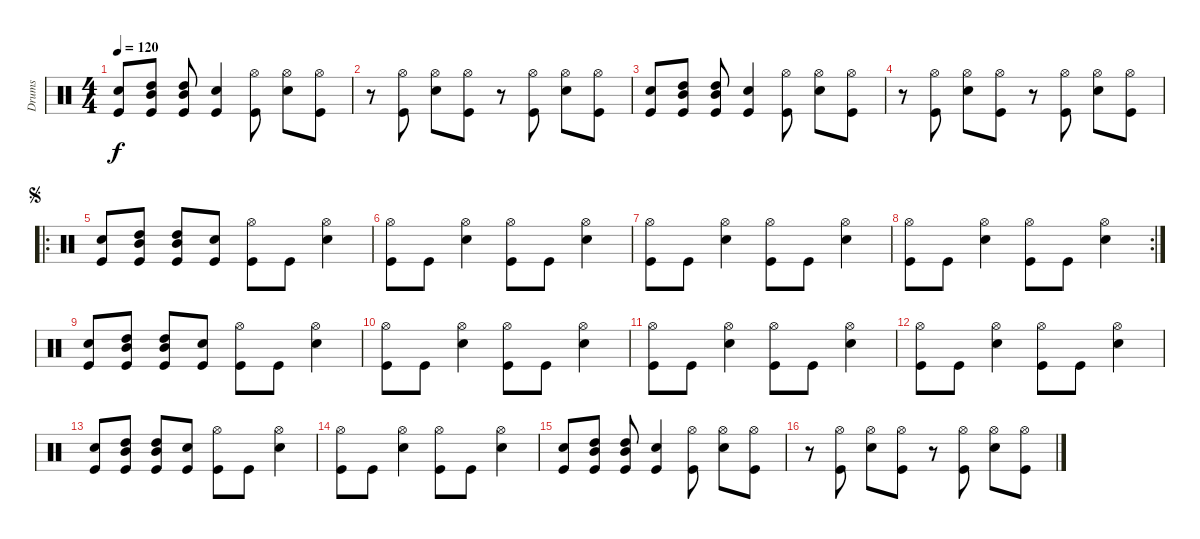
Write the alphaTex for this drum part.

\track ("Drums" "Drums") {instrument percussion}
\staff {score}
\articulation defaults
\ts (4 4)
\tempo 120
\clef neutral
\ks c
("Kick (hit)" "Snare (hit) 2").8{dy f} ("High Tom (hit)" "Mid Tom (hit)" "Kick (hit)").8 ("High Tom (hit)" "Mid Tom (hit)" "Kick (hit)").8 ("Snare (hit) 2" "Kick (hit)").4 ("Kick (hit)" "Hi-Hat (open)").8 ("Snare (hit) 2" "Hi-Hat (open)").8 ("Kick (hit)" "Hi-Hat (open)").8 |
r.8 ("Kick (hit)" "Hi-Hat (open)").8 ("Snare (hit) 2" "Hi-Hat (open)").8 ("Kick (hit)" "Hi-Hat (open)").8 r.8 ("Kick (hit)" "Hi-Hat (open)").8 ("Snare (hit) 2" "Hi-Hat (open)").8 ("Kick (hit)" "Hi-Hat (open)").8 |
("Kick (hit)" "Snare (hit) 2").8 ("High Tom (hit)" "Mid Tom (hit)" "Kick (hit)").8 ("High Tom (hit)" "Mid Tom (hit)" "Kick (hit)").8 ("Snare (hit) 2" "Kick (hit)").4 ("Kick (hit)" "Hi-Hat (open)").8 ("Snare (hit) 2" "Hi-Hat (open)").8 ("Kick (hit)" "Hi-Hat (open)").8 |
r.8 ("Kick (hit)" "Hi-Hat (open)").8 ("Snare (hit) 2" "Hi-Hat (open)").8 ("Kick (hit)" "Hi-Hat (open)").8 r.8 ("Kick (hit)" "Hi-Hat (open)").8 ("Snare (hit) 2" "Hi-Hat (open)").8 ("Kick (hit)" "Hi-Hat (open)").8 |
\ro
\jump segno
("Kick (hit)" "Snare (hit) 2").8 ("High Tom (hit)" "Mid Tom (hit)" "Kick (hit)").8 ("High Tom (hit)" "Mid Tom (hit)" "Kick (hit)").8 ("Snare (hit) 2" "Kick (hit)").8 ("Hi-Hat (open)" "Kick (hit)").8 "Kick (hit)".8 ("Snare (hit) 2" "Hi-Hat (open)").4 |
("Hi-Hat (open)" "Kick (hit)").8 "Kick (hit)".8 ("Snare (hit) 2" "Hi-Hat (open)").4 ("Hi-Hat (open)" "Kick (hit)").8 "Kick (hit)".8 ("Snare (hit) 2" "Hi-Hat (open)").4 |
("Hi-Hat (open)" "Kick (hit)").8 "Kick (hit)".8 ("Snare (hit) 2" "Hi-Hat (open)").4 ("Hi-Hat (open)" "Kick (hit)").8 "Kick (hit)".8 ("Snare (hit) 2" "Hi-Hat (open)").4 |
\rc 2
("Hi-Hat (open)" "Kick (hit)").8 "Kick (hit)".8 ("Snare (hit) 2" "Hi-Hat (open)").4 ("Hi-Hat (open)" "Kick (hit)").8 "Kick (hit)".8 ("Snare (hit) 2" "Hi-Hat (open)").4 |
("Kick (hit)" "Snare (hit) 2").8 ("High Tom (hit)" "Mid Tom (hit)" "Kick (hit)").8 ("High Tom (hit)" "Mid Tom (hit)" "Kick (hit)").8 ("Snare (hit) 2" "Kick (hit)").8 ("Hi-Hat (open)" "Kick (hit)").8 "Kick (hit)".8 ("Snare (hit) 2" "Hi-Hat (open)").4 |
("Hi-Hat (open)" "Kick (hit)").8 "Kick (hit)".8 ("Snare (hit) 2" "Hi-Hat (open)").4 ("Hi-Hat (open)" "Kick (hit)").8 "Kick (hit)".8 ("Snare (hit) 2" "Hi-Hat (open)").4 |
("Hi-Hat (open)" "Kick (hit)").8 "Kick (hit)".8 ("Snare (hit) 2" "Hi-Hat (open)").4 ("Hi-Hat (open)" "Kick (hit)").8 "Kick (hit)".8 ("Snare (hit) 2" "Hi-Hat (open)").4 |
("Hi-Hat (open)" "Kick (hit)").8 "Kick (hit)".8 ("Snare (hit) 2" "Hi-Hat (open)").4 ("Hi-Hat (open)" "Kick (hit)").8 "Kick (hit)".8 ("Snare (hit) 2" "Hi-Hat (open)").4 |
("Kick (hit)" "Snare (hit) 2").8 ("High Tom (hit)" "Mid Tom (hit)" "Kick (hit)").8 ("High Tom (hit)" "Mid Tom (hit)" "Kick (hit)").8 ("Snare (hit) 2" "Kick (hit)").8 ("Hi-Hat (open)" "Kick (hit)").8 "Kick (hit)".8 ("Snare (hit) 2" "Hi-Hat (open)").4 |
("Hi-Hat (open)" "Kick (hit)").8 "Kick (hit)".8 ("Snare (hit) 2" "Hi-Hat (open)").4 ("Hi-Hat (open)" "Kick (hit)").8 "Kick (hit)".8 ("Snare (hit) 2" "Hi-Hat (open)").4 |
("Kick (hit)" "Snare (hit) 2").8 ("High Tom (hit)" "Mid Tom (hit)" "Kick (hit)").8 ("High Tom (hit)" "Mid Tom (hit)" "Kick (hit)").8 ("Snare (hit) 2" "Kick (hit)").4 ("Kick (hit)" "Hi-Hat (open)").8 ("Snare (hit) 2" "Hi-Hat (open)").8 ("Kick (hit)" "Hi-Hat (open)").8 |
r.8 ("Kick (hit)" "Hi-Hat (open)").8 ("Snare (hit) 2" "Hi-Hat (open)").8 ("Kick (hit)" "Hi-Hat (open)").8 r.8 ("Kick (hit)" "Hi-Hat (open)").8 ("Snare (hit) 2" "Hi-Hat (open)").8 ("Kick (hit)" "Hi-Hat (open)").8
